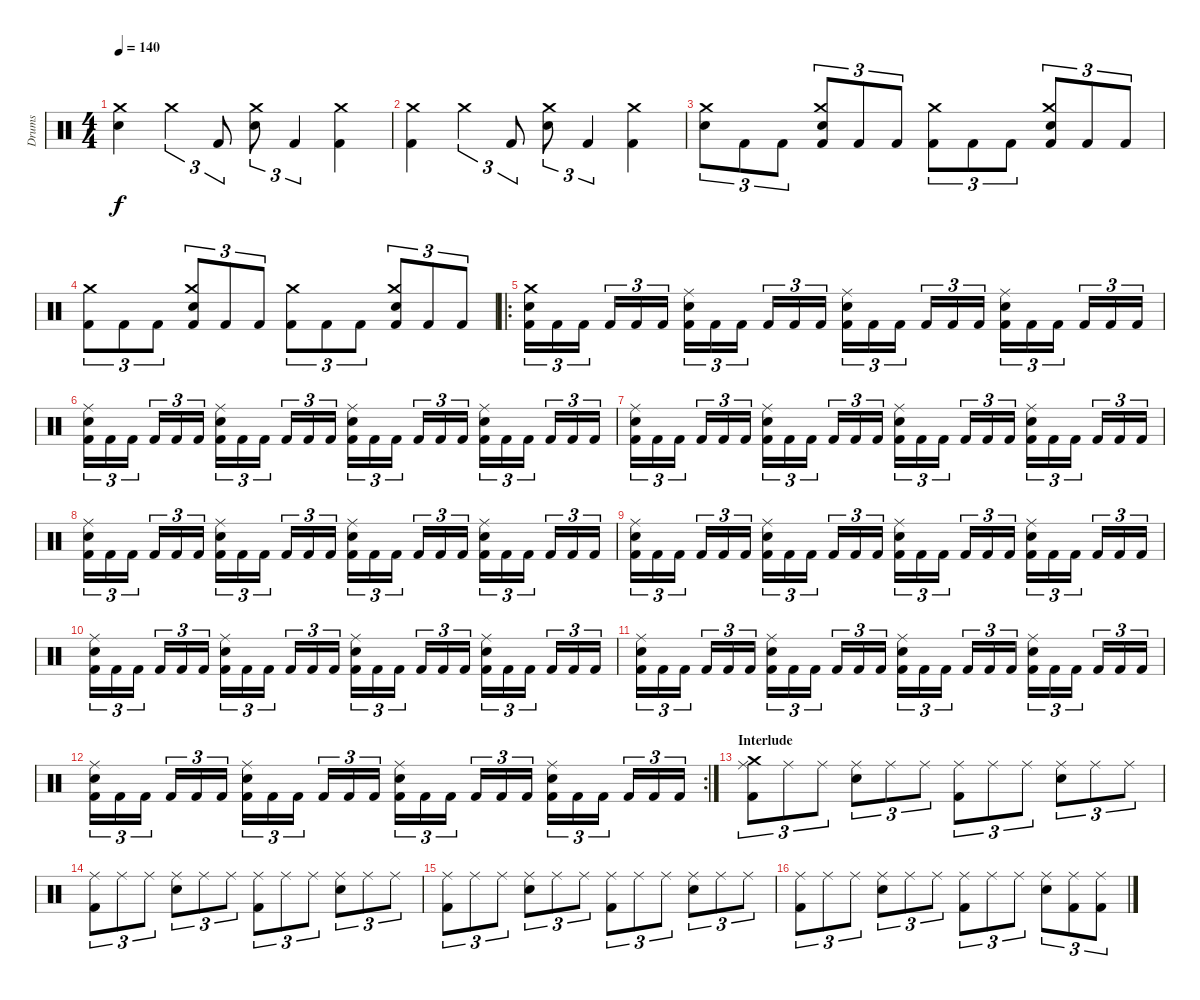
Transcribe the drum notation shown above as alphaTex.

\track ("Drums" "Drums") {instrument percussion}
\staff {score}
\articulation defaults
\ts (4 4)
\tempo 140
\clef neutral
\ks c
("Electric Snare (hit)" "Crash medium (hit)").4{dy f} "Crash medium (hit)".4{tu (3 2)} "Kick (hit) 2".8{tu (3 2)} ("Electric Snare (hit)" "Crash medium (hit)").8{tu (3 2)} "Kick (hit) 2".4{tu (3 2)} ("Kick (hit) 2" "Crash medium (hit)").4 |
("Kick (hit) 2" "Crash medium (hit)").4 "Crash medium (hit)".4{tu (3 2)} "Kick (hit) 2".8{tu (3 2)} ("Electric Snare (hit)" "Crash medium (hit)").8{tu (3 2)} "Kick (hit) 2".4{tu (3 2)} ("Kick (hit) 2" "Crash medium (hit)").4 |
("Electric Snare (hit)" "Crash medium (hit)").8{tu (3 2)} "Kick (hit) 2".8{tu (3 2)} "Kick (hit) 2".8{tu (3 2)} ("Kick (hit) 2" "Electric Snare (hit)" "Crash medium (hit)").8{tu (3 2)} "Kick (hit) 2".8{tu (3 2)} "Kick (hit) 2".8{tu (3 2)} ("Kick (hit) 2" "Crash medium (hit)").8{tu (3 2)} "Kick (hit) 2".8{tu (3 2)} "Kick (hit) 2".8{tu (3 2)} ("Kick (hit) 2" "Electric Snare (hit)" "Crash medium (hit)").8{tu (3 2)} "Kick (hit) 2".8{tu (3 2)} "Kick (hit) 2".8{tu (3 2)} |
("Kick (hit) 2" "Crash medium (hit)").8{tu (3 2)} "Kick (hit) 2".8{tu (3 2)} "Kick (hit) 2".8{tu (3 2)} ("Kick (hit) 2" "Electric Snare (hit)" "Crash medium (hit)").8{tu (3 2)} "Kick (hit) 2".8{tu (3 2)} "Kick (hit) 2".8{tu (3 2)} ("Kick (hit) 2" "Crash medium (hit)").8{tu (3 2)} "Kick (hit) 2".8{tu (3 2)} "Kick (hit) 2".8{tu (3 2)} ("Kick (hit) 2" "Electric Snare (hit)" "Crash medium (hit)").8{tu (3 2)} "Kick (hit) 2".8{tu (3 2)} "Kick (hit) 2".8{tu (3 2)} |
\ro
("Kick (hit) 2" "Snare (hit) 2" "Crash medium (hit)").16{tu (3 2)} "Kick (hit) 2".16{tu (3 2)} "Kick (hit) 2".16{tu (3 2)} "Kick (hit) 2".16{tu (3 2)} "Kick (hit) 2".16{tu (3 2)} "Kick (hit) 2".16{tu (3 2)} ("Kick (hit) 2" "Snare (hit) 2" "Ride (middle)").16{tu (3 2)} "Kick (hit) 2".16{tu (3 2)} "Kick (hit) 2".16{tu (3 2)} "Kick (hit) 2".16{tu (3 2)} "Kick (hit) 2".16{tu (3 2)} "Kick (hit) 2".16{tu (3 2)} ("Kick (hit) 2" "Snare (hit) 2" "Ride (middle)").16{tu (3 2)} "Kick (hit) 2".16{tu (3 2)} "Kick (hit) 2".16{tu (3 2)} "Kick (hit) 2".16{tu (3 2)} "Kick (hit) 2".16{tu (3 2)} "Kick (hit) 2".16{tu (3 2)} ("Kick (hit) 2" "Snare (hit) 2" "Ride (middle)").16{tu (3 2)} "Kick (hit) 2".16{tu (3 2)} "Kick (hit) 2".16{tu (3 2)} "Kick (hit) 2".16{tu (3 2)} "Kick (hit) 2".16{tu (3 2)} "Kick (hit) 2".16{tu (3 2)} |
("Kick (hit) 2" "Snare (hit) 2" "Ride (middle)").16{tu (3 2)} "Kick (hit) 2".16{tu (3 2)} "Kick (hit) 2".16{tu (3 2)} "Kick (hit) 2".16{tu (3 2)} "Kick (hit) 2".16{tu (3 2)} "Kick (hit) 2".16{tu (3 2)} ("Kick (hit) 2" "Snare (hit) 2" "Ride (middle)").16{tu (3 2)} "Kick (hit) 2".16{tu (3 2)} "Kick (hit) 2".16{tu (3 2)} "Kick (hit) 2".16{tu (3 2)} "Kick (hit) 2".16{tu (3 2)} "Kick (hit) 2".16{tu (3 2)} ("Kick (hit) 2" "Snare (hit) 2" "Ride (middle)").16{tu (3 2)} "Kick (hit) 2".16{tu (3 2)} "Kick (hit) 2".16{tu (3 2)} "Kick (hit) 2".16{tu (3 2)} "Kick (hit) 2".16{tu (3 2)} "Kick (hit) 2".16{tu (3 2)} ("Kick (hit) 2" "Snare (hit) 2" "Ride (middle)").16{tu (3 2)} "Kick (hit) 2".16{tu (3 2)} "Kick (hit) 2".16{tu (3 2)} "Kick (hit) 2".16{tu (3 2)} "Kick (hit) 2".16{tu (3 2)} "Kick (hit) 2".16{tu (3 2)} |
("Kick (hit) 2" "Snare (hit) 2" "Ride (middle)").16{tu (3 2)} "Kick (hit) 2".16{tu (3 2)} "Kick (hit) 2".16{tu (3 2)} "Kick (hit) 2".16{tu (3 2)} "Kick (hit) 2".16{tu (3 2)} "Kick (hit) 2".16{tu (3 2)} ("Kick (hit) 2" "Snare (hit) 2" "Ride (middle)").16{tu (3 2)} "Kick (hit) 2".16{tu (3 2)} "Kick (hit) 2".16{tu (3 2)} "Kick (hit) 2".16{tu (3 2)} "Kick (hit) 2".16{tu (3 2)} "Kick (hit) 2".16{tu (3 2)} ("Kick (hit) 2" "Snare (hit) 2" "Ride (middle)").16{tu (3 2)} "Kick (hit) 2".16{tu (3 2)} "Kick (hit) 2".16{tu (3 2)} "Kick (hit) 2".16{tu (3 2)} "Kick (hit) 2".16{tu (3 2)} "Kick (hit) 2".16{tu (3 2)} ("Kick (hit) 2" "Snare (hit) 2" "Ride (middle)").16{tu (3 2)} "Kick (hit) 2".16{tu (3 2)} "Kick (hit) 2".16{tu (3 2)} "Kick (hit) 2".16{tu (3 2)} "Kick (hit) 2".16{tu (3 2)} "Kick (hit) 2".16{tu (3 2)} |
("Kick (hit) 2" "Snare (hit) 2" "Ride (middle)").16{tu (3 2)} "Kick (hit) 2".16{tu (3 2)} "Kick (hit) 2".16{tu (3 2)} "Kick (hit) 2".16{tu (3 2)} "Kick (hit) 2".16{tu (3 2)} "Kick (hit) 2".16{tu (3 2)} ("Kick (hit) 2" "Snare (hit) 2" "Ride (middle)").16{tu (3 2)} "Kick (hit) 2".16{tu (3 2)} "Kick (hit) 2".16{tu (3 2)} "Kick (hit) 2".16{tu (3 2)} "Kick (hit) 2".16{tu (3 2)} "Kick (hit) 2".16{tu (3 2)} ("Kick (hit) 2" "Snare (hit) 2" "Ride (middle)").16{tu (3 2)} "Kick (hit) 2".16{tu (3 2)} "Kick (hit) 2".16{tu (3 2)} "Kick (hit) 2".16{tu (3 2)} "Kick (hit) 2".16{tu (3 2)} "Kick (hit) 2".16{tu (3 2)} ("Kick (hit) 2" "Snare (hit) 2" "Ride (middle)").16{tu (3 2)} "Kick (hit) 2".16{tu (3 2)} "Kick (hit) 2".16{tu (3 2)} "Kick (hit) 2".16{tu (3 2)} "Kick (hit) 2".16{tu (3 2)} "Kick (hit) 2".16{tu (3 2)} |
("Kick (hit) 2" "Snare (hit) 2" "Ride (middle)").16{tu (3 2)} "Kick (hit) 2".16{tu (3 2)} "Kick (hit) 2".16{tu (3 2)} "Kick (hit) 2".16{tu (3 2)} "Kick (hit) 2".16{tu (3 2)} "Kick (hit) 2".16{tu (3 2)} ("Kick (hit) 2" "Snare (hit) 2" "Ride (middle)").16{tu (3 2)} "Kick (hit) 2".16{tu (3 2)} "Kick (hit) 2".16{tu (3 2)} "Kick (hit) 2".16{tu (3 2)} "Kick (hit) 2".16{tu (3 2)} "Kick (hit) 2".16{tu (3 2)} ("Kick (hit) 2" "Snare (hit) 2" "Ride (middle)").16{tu (3 2)} "Kick (hit) 2".16{tu (3 2)} "Kick (hit) 2".16{tu (3 2)} "Kick (hit) 2".16{tu (3 2)} "Kick (hit) 2".16{tu (3 2)} "Kick (hit) 2".16{tu (3 2)} ("Kick (hit) 2" "Snare (hit) 2" "Ride (middle)").16{tu (3 2)} "Kick (hit) 2".16{tu (3 2)} "Kick (hit) 2".16{tu (3 2)} "Kick (hit) 2".16{tu (3 2)} "Kick (hit) 2".16{tu (3 2)} "Kick (hit) 2".16{tu (3 2)} |
("Kick (hit) 2" "Snare (hit) 2" "Ride (middle)").16{tu (3 2)} "Kick (hit) 2".16{tu (3 2)} "Kick (hit) 2".16{tu (3 2)} "Kick (hit) 2".16{tu (3 2)} "Kick (hit) 2".16{tu (3 2)} "Kick (hit) 2".16{tu (3 2)} ("Kick (hit) 2" "Snare (hit) 2" "Ride (middle)").16{tu (3 2)} "Kick (hit) 2".16{tu (3 2)} "Kick (hit) 2".16{tu (3 2)} "Kick (hit) 2".16{tu (3 2)} "Kick (hit) 2".16{tu (3 2)} "Kick (hit) 2".16{tu (3 2)} ("Kick (hit) 2" "Snare (hit) 2" "Ride (middle)").16{tu (3 2)} "Kick (hit) 2".16{tu (3 2)} "Kick (hit) 2".16{tu (3 2)} "Kick (hit) 2".16{tu (3 2)} "Kick (hit) 2".16{tu (3 2)} "Kick (hit) 2".16{tu (3 2)} ("Kick (hit) 2" "Snare (hit) 2" "Ride (middle)").16{tu (3 2)} "Kick (hit) 2".16{tu (3 2)} "Kick (hit) 2".16{tu (3 2)} "Kick (hit) 2".16{tu (3 2)} "Kick (hit) 2".16{tu (3 2)} "Kick (hit) 2".16{tu (3 2)} |
("Kick (hit) 2" "Snare (hit) 2" "Ride (middle)").16{tu (3 2)} "Kick (hit) 2".16{tu (3 2)} "Kick (hit) 2".16{tu (3 2)} "Kick (hit) 2".16{tu (3 2)} "Kick (hit) 2".16{tu (3 2)} "Kick (hit) 2".16{tu (3 2)} ("Kick (hit) 2" "Snare (hit) 2" "Ride (middle)").16{tu (3 2)} "Kick (hit) 2".16{tu (3 2)} "Kick (hit) 2".16{tu (3 2)} "Kick (hit) 2".16{tu (3 2)} "Kick (hit) 2".16{tu (3 2)} "Kick (hit) 2".16{tu (3 2)} ("Kick (hit) 2" "Snare (hit) 2" "Ride (middle)").16{tu (3 2)} "Kick (hit) 2".16{tu (3 2)} "Kick (hit) 2".16{tu (3 2)} "Kick (hit) 2".16{tu (3 2)} "Kick (hit) 2".16{tu (3 2)} "Kick (hit) 2".16{tu (3 2)} ("Kick (hit) 2" "Snare (hit) 2" "Ride (middle)").16{tu (3 2)} "Kick (hit) 2".16{tu (3 2)} "Kick (hit) 2".16{tu (3 2)} "Kick (hit) 2".16{tu (3 2)} "Kick (hit) 2".16{tu (3 2)} "Kick (hit) 2".16{tu (3 2)} |
\rc 2
("Kick (hit) 2" "Snare (hit) 2" "Ride (middle)").16{tu (3 2)} "Kick (hit) 2".16{tu (3 2)} "Kick (hit) 2".16{tu (3 2)} "Kick (hit) 2".16{tu (3 2)} "Kick (hit) 2".16{tu (3 2)} "Kick (hit) 2".16{tu (3 2)} ("Kick (hit) 2" "Snare (hit) 2" "Ride (middle)").16{tu (3 2)} "Kick (hit) 2".16{tu (3 2)} "Kick (hit) 2".16{tu (3 2)} "Kick (hit) 2".16{tu (3 2)} "Kick (hit) 2".16{tu (3 2)} "Kick (hit) 2".16{tu (3 2)} ("Kick (hit) 2" "Snare (hit) 2" "Ride (middle)").16{tu (3 2)} "Kick (hit) 2".16{tu (3 2)} "Kick (hit) 2".16{tu (3 2)} "Kick (hit) 2".16{tu (3 2)} "Kick (hit) 2".16{tu (3 2)} "Kick (hit) 2".16{tu (3 2)} ("Kick (hit) 2" "Snare (hit) 2" "Ride (middle)").16{tu (3 2)} "Kick (hit) 2".16{tu (3 2)} "Kick (hit) 2".16{tu (3 2)} "Kick (hit) 2".16{tu (3 2)} "Kick (hit) 2".16{tu (3 2)} "Kick (hit) 2".16{tu (3 2)} |
\section ("" "Interlude")
("Kick (hit) 2" "Ride (middle)" "Crash medium (hit)").8{tu (3 2)} "Ride (middle)".8{tu (3 2)} "Ride (middle)".8{tu (3 2)} ("Electric Snare (hit)" "Ride (middle)").8{tu (3 2)} "Ride (middle)".8{tu (3 2)} "Ride (middle)".8{tu (3 2)} ("Kick (hit) 2" "Ride (middle)").8{tu (3 2)} "Ride (middle)".8{tu (3 2)} "Ride (middle)".8{tu (3 2)} ("Electric Snare (hit)" "Ride (middle)").8{tu (3 2)} "Ride (middle)".8{tu (3 2)} "Ride (middle)".8{tu (3 2)} |
("Kick (hit) 2" "Ride (middle)").8{tu (3 2)} "Ride (middle)".8{tu (3 2)} "Ride (middle)".8{tu (3 2)} ("Electric Snare (hit)" "Ride (middle)").8{tu (3 2)} "Ride (middle)".8{tu (3 2)} "Ride (middle)".8{tu (3 2)} ("Kick (hit) 2" "Ride (middle)").8{tu (3 2)} "Ride (middle)".8{tu (3 2)} "Ride (middle)".8{tu (3 2)} ("Electric Snare (hit)" "Ride (middle)").8{tu (3 2)} "Ride (middle)".8{tu (3 2)} "Ride (middle)".8{tu (3 2)} |
("Kick (hit) 2" "Ride (middle)").8{tu (3 2)} "Ride (middle)".8{tu (3 2)} "Ride (middle)".8{tu (3 2)} ("Electric Snare (hit)" "Ride (middle)").8{tu (3 2)} "Ride (middle)".8{tu (3 2)} "Ride (middle)".8{tu (3 2)} ("Kick (hit) 2" "Ride (middle)").8{tu (3 2)} "Ride (middle)".8{tu (3 2)} "Ride (middle)".8{tu (3 2)} ("Electric Snare (hit)" "Ride (middle)").8{tu (3 2)} "Ride (middle)".8{tu (3 2)} "Ride (middle)".8{tu (3 2)} |
("Kick (hit) 2" "Ride (middle)").8{tu (3 2)} "Ride (middle)".8{tu (3 2)} "Ride (middle)".8{tu (3 2)} ("Electric Snare (hit)" "Ride (middle)").8{tu (3 2)} "Ride (middle)".8{tu (3 2)} "Ride (middle)".8{tu (3 2)} ("Kick (hit) 2" "Ride (middle)").8{tu (3 2)} "Ride (middle)".8{tu (3 2)} "Ride (middle)".8{tu (3 2)} ("Electric Snare (hit)" "Ride (middle)").8{tu (3 2)} ("Kick (hit) 2" "Ride (middle)").8{tu (3 2)} ("Kick (hit) 2" "Ride (middle)").8{tu (3 2)}
